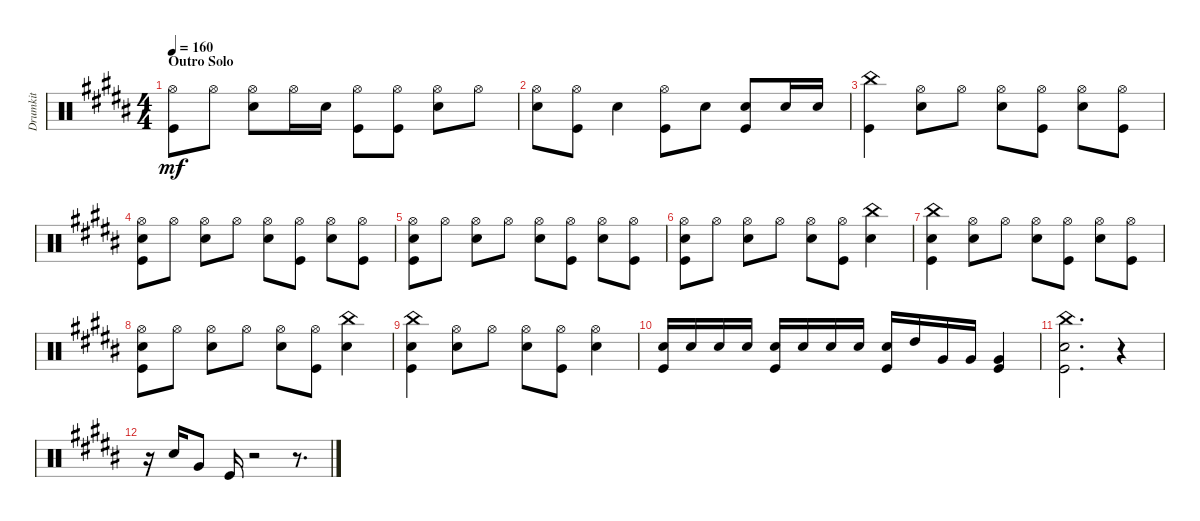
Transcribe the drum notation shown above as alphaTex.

\track ("Drumkit" "Drumkit") {instrument percussion}
\staff {score}
\articulation defaults
\ts (4 4)
\section ("" "Outro Solo")
\tempo 160
\clef neutral
\ks b
("Kick (hit)" "Hi-Hat (open)").8{dy mf} "Hi-Hat (open)".8 ("Hi-Hat (open)" "Snare (hit) 2").8 "Hi-Hat (open)".16 "Snare (hit) 2".16 ("Hi-Hat (open)" "Kick (hit)").8 ("Hi-Hat (open)" "Kick (hit)").8 ("Hi-Hat (open)" "Snare (hit) 2").8 "Hi-Hat (open)".8 |
("Hi-Hat (open)" "Snare (hit) 2").8 ("Hi-Hat (open)" "Kick (hit)").8 "Snare (hit) 2".4 ("Hi-Hat (open)" "Kick (hit)").8 "Snare (hit) 2".8 ("Snare (hit) 2" "Kick (hit)").8 "Snare (hit) 2".16 "Snare (hit) 2".16 |
("Kick (hit)" "China (hit)").4 ("Hi-Hat (open)" "Snare (hit) 2").8 "Hi-Hat (open)".8 ("Hi-Hat (open)" "Snare (hit) 2").8 ("Hi-Hat (open)" "Kick (hit)").8 ("Hi-Hat (open)" "Snare (hit) 2").8 ("Hi-Hat (open)" "Kick (hit)").8 |
("Kick (hit)" "Snare (hit) 2" "Hi-Hat (open)").8 "Hi-Hat (open)".8 ("Hi-Hat (open)" "Snare (hit) 2").8 "Hi-Hat (open)".8 ("Hi-Hat (open)" "Snare (hit) 2").8 ("Hi-Hat (open)" "Kick (hit)").8 ("Hi-Hat (open)" "Snare (hit) 2").8 ("Hi-Hat (open)" "Kick (hit)").8 |
("Kick (hit)" "Snare (hit) 2" "Hi-Hat (open)").8 "Hi-Hat (open)".8 ("Hi-Hat (open)" "Snare (hit) 2").8 "Hi-Hat (open)".8 ("Hi-Hat (open)" "Snare (hit) 2").8 ("Hi-Hat (open)" "Kick (hit)").8 ("Hi-Hat (open)" "Snare (hit) 2").8 ("Hi-Hat (open)" "Kick (hit)").8 |
("Hi-Hat (open)" "Snare (hit) 2" "Kick (hit)").8 "Hi-Hat (open)".8 ("Hi-Hat (open)" "Snare (hit) 2").8 "Hi-Hat (open)".8 ("Hi-Hat (open)" "Snare (hit) 2").8 ("Hi-Hat (open)" "Kick (hit)").8 ("Snare (hit) 2" "China (hit)").4 |
("Snare (hit) 2" "Kick (hit)" "China (hit)").4 ("Snare (hit) 2" "Hi-Hat (open)").8 "Hi-Hat (open)".8 ("Hi-Hat (open)" "Snare (hit) 2").8 ("Hi-Hat (open)" "Kick (hit)").8 ("Hi-Hat (open)" "Snare (hit) 2").8 ("Hi-Hat (open)" "Kick (hit)").8 |
("Snare (hit) 2" "Kick (hit)" "Hi-Hat (open)").8 "Hi-Hat (open)".8 ("Hi-Hat (open)" "Snare (hit) 2").8 "Hi-Hat (open)".8 ("Hi-Hat (open)" "Snare (hit) 2").8 ("Hi-Hat (open)" "Kick (hit)").8 ("Snare (hit) 2" "China (hit)").4 |
("China (hit)" "Snare (hit) 2" "Kick (hit)").4 ("Snare (hit) 2" "Hi-Hat (open)").8 "Hi-Hat (open)".8 ("Hi-Hat (open)" "Snare (hit) 2").8 ("Hi-Hat (open)" "Kick (hit)").8 ("Hi-Hat (open)" "Snare (hit) 2").4 |
("Snare (hit) 2" "Kick (hit)").16 "Snare (hit) 2".16 "Snare (hit) 2".16 "Snare (hit) 2".16 ("Snare (hit) 2" "Kick (hit)").16 "Snare (hit) 2".16 "Snare (hit) 2".16 "Snare (hit) 2".16 ("Snare (hit) 2" "Kick (hit)").16 "High Tom (hit)".16 "Very Low Tom (hit)".16 "Very Low Tom (hit)".16 ("Very Low Tom (hit)" "Kick (hit)").4 |
("Kick (hit)" "Snare (hit) 2" "China (hit)").2{d} r.4 |
r.16 "Snare (hit) 2".16 "Very Low Tom (hit)".8 "Kick (hit)".16 r.2 r.8{d}
